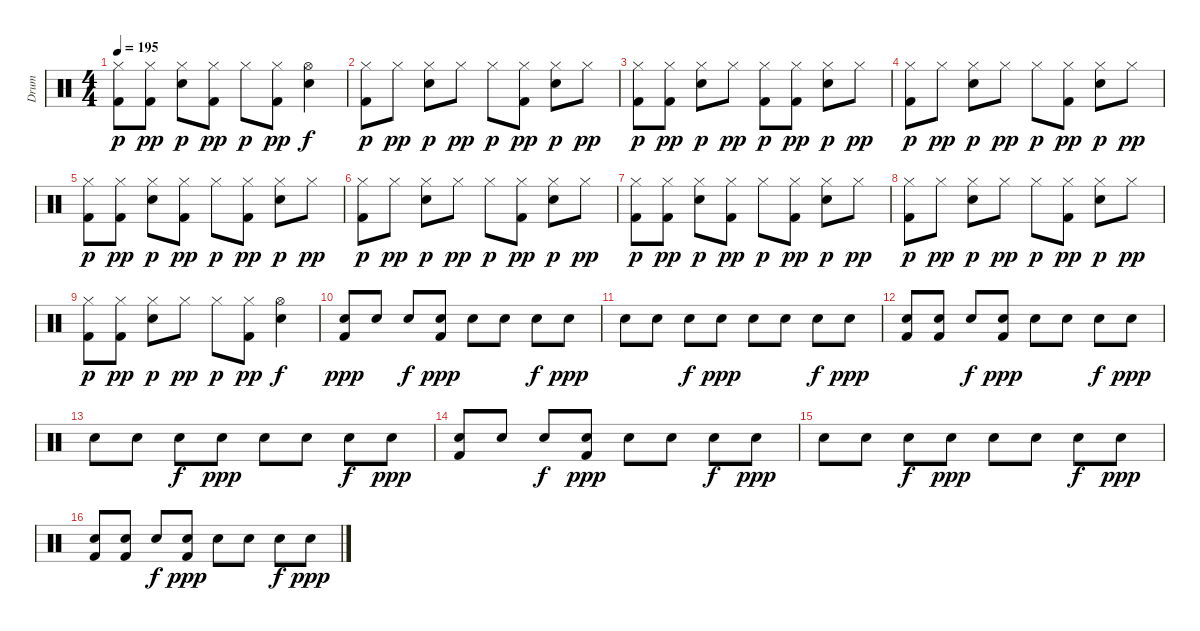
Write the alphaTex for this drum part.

\track ("Drum" "Drum") {instrument percussion}
\staff {score}
\articulation defaults
\ts (4 4)
\tempo 195
\clef neutral
\ks c
("Hi-Hat (closed)" "Kick (hit) 2").8{dy p} ("Hi-Hat (closed)" "Kick (hit) 2").8{dy pp} ("Hi-Hat (closed)" "Electric Snare (hit)").8{dy p} ("Hi-Hat (closed)" "Kick (hit) 2").8{dy pp} "Hi-Hat (closed)".8{dy p} ("Hi-Hat (closed)" "Kick (hit) 2").8{dy pp} ("Hi-Hat (open)" "Electric Snare (hit)").4{dy f} |
("Hi-Hat (closed)" "Kick (hit) 2").8{dy p} "Hi-Hat (closed)".8{dy pp} ("Hi-Hat (closed)" "Electric Snare (hit)").8{dy p} "Hi-Hat (closed)".8{dy pp} "Hi-Hat (closed)".8{dy p} ("Hi-Hat (closed)" "Kick (hit) 2").8{dy pp} ("Hi-Hat (closed)" "Electric Snare (hit)").8{dy p} "Hi-Hat (closed)".8{dy pp} |
("Hi-Hat (closed)" "Kick (hit) 2").8{dy p} ("Hi-Hat (closed)" "Kick (hit) 2").8{dy pp} ("Hi-Hat (closed)" "Electric Snare (hit)").8{dy p} "Hi-Hat (closed)".8{dy pp} ("Hi-Hat (closed)" "Kick (hit) 2").8{dy p} ("Hi-Hat (closed)" "Kick (hit) 2").8{dy pp} ("Hi-Hat (closed)" "Electric Snare (hit)").8{dy p} "Hi-Hat (closed)".8{dy pp} |
("Hi-Hat (closed)" "Kick (hit) 2").8{dy p} "Hi-Hat (closed)".8{dy pp} ("Hi-Hat (closed)" "Electric Snare (hit)").8{dy p} "Hi-Hat (closed)".8{dy pp} "Hi-Hat (closed)".8{dy p} ("Hi-Hat (closed)" "Kick (hit) 2").8{dy pp} ("Hi-Hat (closed)" "Electric Snare (hit)").8{dy p} "Hi-Hat (closed)".8{dy pp} |
("Hi-Hat (closed)" "Kick (hit) 2").8{dy p} ("Hi-Hat (closed)" "Kick (hit) 2").8{dy pp} ("Hi-Hat (closed)" "Electric Snare (hit)").8{dy p} ("Hi-Hat (closed)" "Kick (hit) 2").8{dy pp} "Hi-Hat (closed)".8{dy p} ("Hi-Hat (closed)" "Kick (hit) 2").8{dy pp} ("Hi-Hat (closed)" "Electric Snare (hit)").8{dy p} "Hi-Hat (closed)".8{dy pp} |
("Hi-Hat (closed)" "Kick (hit) 2").8{dy p} "Hi-Hat (closed)".8{dy pp} ("Hi-Hat (closed)" "Electric Snare (hit)").8{dy p} "Hi-Hat (closed)".8{dy pp} "Hi-Hat (closed)".8{dy p} ("Hi-Hat (closed)" "Kick (hit) 2").8{dy pp} ("Hi-Hat (closed)" "Electric Snare (hit)").8{dy p} "Hi-Hat (closed)".8{dy pp} |
("Hi-Hat (closed)" "Kick (hit) 2").8{dy p} ("Hi-Hat (closed)" "Kick (hit) 2").8{dy pp} ("Hi-Hat (closed)" "Electric Snare (hit)").8{dy p} ("Hi-Hat (closed)" "Kick (hit) 2").8{dy pp} "Hi-Hat (closed)".8{dy p} ("Hi-Hat (closed)" "Kick (hit) 2").8{dy pp} ("Hi-Hat (closed)" "Electric Snare (hit)").8{dy p} "Hi-Hat (closed)".8{dy pp} |
("Hi-Hat (closed)" "Kick (hit) 2").8{dy p} "Hi-Hat (closed)".8{dy pp} ("Hi-Hat (closed)" "Electric Snare (hit)").8{dy p} "Hi-Hat (closed)".8{dy pp} "Hi-Hat (closed)".8{dy p} ("Hi-Hat (closed)" "Kick (hit) 2").8{dy pp} ("Hi-Hat (closed)" "Electric Snare (hit)").8{dy p} "Hi-Hat (closed)".8{dy pp} |
("Hi-Hat (closed)" "Kick (hit) 2").8{dy p} ("Hi-Hat (closed)" "Kick (hit) 2").8{dy pp} ("Hi-Hat (closed)" "Electric Snare (hit)").8{dy p} "Hi-Hat (closed)".8{dy pp} "Hi-Hat (closed)".8{dy p} ("Hi-Hat (closed)" "Kick (hit) 2").8{dy pp} ("Hi-Hat (open)" "Electric Snare (hit)").4{dy f} |
("Electric Snare (hit)" "Kick (hit) 2").8{dy ppp} "Electric Snare (hit)".8 "Electric Snare (hit)".8{dy f} ("Electric Snare (hit)" "Kick (hit) 2").8{dy ppp} "Electric Snare (hit)".8 "Electric Snare (hit)".8 "Electric Snare (hit)".8{dy f} "Electric Snare (hit)".8{dy ppp} |
"Electric Snare (hit)".8 "Electric Snare (hit)".8 "Electric Snare (hit)".8{dy f} "Electric Snare (hit)".8{dy ppp} "Electric Snare (hit)".8 "Electric Snare (hit)".8 "Electric Snare (hit)".8{dy f} "Electric Snare (hit)".8{dy ppp} |
("Electric Snare (hit)" "Kick (hit) 2").8 ("Electric Snare (hit)" "Kick (hit) 2").8 "Electric Snare (hit)".8{dy f} ("Electric Snare (hit)" "Kick (hit) 2").8{dy ppp} "Electric Snare (hit)".8 "Electric Snare (hit)".8 "Electric Snare (hit)".8{dy f} "Electric Snare (hit)".8{dy ppp} |
"Electric Snare (hit)".8 "Electric Snare (hit)".8 "Electric Snare (hit)".8{dy f} "Electric Snare (hit)".8{dy ppp} "Electric Snare (hit)".8 "Electric Snare (hit)".8 "Electric Snare (hit)".8{dy f} "Electric Snare (hit)".8{dy ppp} |
("Electric Snare (hit)" "Kick (hit) 2").8 "Electric Snare (hit)".8 "Electric Snare (hit)".8{dy f} ("Electric Snare (hit)" "Kick (hit) 2").8{dy ppp} "Electric Snare (hit)".8 "Electric Snare (hit)".8 "Electric Snare (hit)".8{dy f} "Electric Snare (hit)".8{dy ppp} |
"Electric Snare (hit)".8 "Electric Snare (hit)".8 "Electric Snare (hit)".8{dy f} "Electric Snare (hit)".8{dy ppp} "Electric Snare (hit)".8 "Electric Snare (hit)".8 "Electric Snare (hit)".8{dy f} "Electric Snare (hit)".8{dy ppp} |
("Electric Snare (hit)" "Kick (hit) 2").8 ("Electric Snare (hit)" "Kick (hit) 2").8 "Electric Snare (hit)".8{dy f} ("Electric Snare (hit)" "Kick (hit) 2").8{dy ppp} "Electric Snare (hit)".8 "Electric Snare (hit)".8 "Electric Snare (hit)".8{dy f} "Electric Snare (hit)".8{dy ppp}
